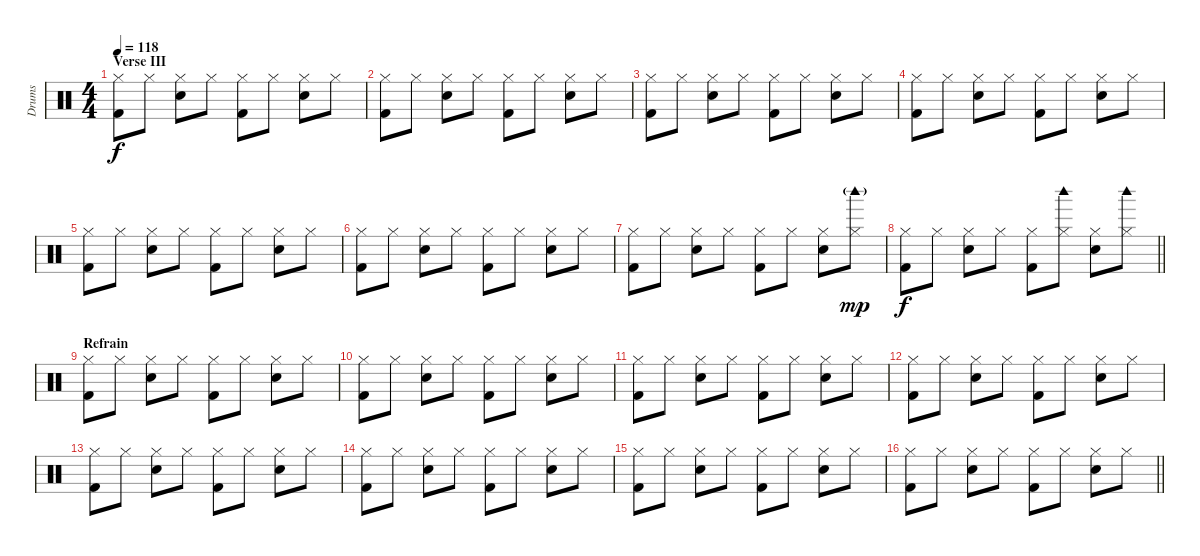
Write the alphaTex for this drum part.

\track ("Drums" "Drums") {instrument percussion}
\staff {score}
\articulation defaults
\ts (4 4)
\section ("" "Verse III")
\tempo 118
\clef neutral
\ks c
("Hi-Hat (closed)" "Kick (hit) 2").8{dy f} "Hi-Hat (closed)".8 ("Hi-Hat (closed)" "Snare (hit) 2").8 "Hi-Hat (closed)".8 ("Hi-Hat (closed)" "Kick (hit) 2").8 "Hi-Hat (closed)".8 ("Hi-Hat (closed)" "Snare (hit) 2").8 "Hi-Hat (closed)".8 |
("Hi-Hat (closed)" "Kick (hit) 2").8 "Hi-Hat (closed)".8 ("Hi-Hat (closed)" "Snare (hit) 2").8 "Hi-Hat (closed)".8 ("Hi-Hat (closed)" "Kick (hit) 2").8 "Hi-Hat (closed)".8 ("Hi-Hat (closed)" "Snare (hit) 2").8 "Hi-Hat (closed)".8 |
("Hi-Hat (closed)" "Kick (hit) 2").8 "Hi-Hat (closed)".8 ("Hi-Hat (closed)" "Snare (hit) 2").8 "Hi-Hat (closed)".8 ("Hi-Hat (closed)" "Kick (hit) 2").8 "Hi-Hat (closed)".8 ("Hi-Hat (closed)" "Snare (hit) 2").8 "Hi-Hat (closed)".8 |
("Hi-Hat (closed)" "Kick (hit) 2").8 "Hi-Hat (closed)".8 ("Hi-Hat (closed)" "Snare (hit) 2").8 "Hi-Hat (closed)".8 ("Hi-Hat (closed)" "Kick (hit) 2").8 "Hi-Hat (closed)".8 ("Hi-Hat (closed)" "Snare (hit) 2").8 "Hi-Hat (closed)".8 |
("Hi-Hat (closed)" "Kick (hit) 2").8 "Hi-Hat (closed)".8 ("Hi-Hat (closed)" "Snare (hit) 2").8 "Hi-Hat (closed)".8 ("Hi-Hat (closed)" "Kick (hit) 2").8 "Hi-Hat (closed)".8 ("Hi-Hat (closed)" "Snare (hit) 2").8 "Hi-Hat (closed)".8 |
("Hi-Hat (closed)" "Kick (hit) 2").8 "Hi-Hat (closed)".8 ("Hi-Hat (closed)" "Snare (hit) 2").8 "Hi-Hat (closed)".8 ("Hi-Hat (closed)" "Kick (hit) 2").8 "Hi-Hat (closed)".8 ("Hi-Hat (closed)" "Snare (hit) 2").8 "Hi-Hat (closed)".8 |
("Hi-Hat (closed)" "Kick (hit) 2").8 "Hi-Hat (closed)".8 ("Hi-Hat (closed)" "Snare (hit) 2").8 "Hi-Hat (closed)".8 ("Hi-Hat (closed)" "Kick (hit) 2").8 "Hi-Hat (closed)".8 ("Hi-Hat (closed)" "Snare (hit) 2").8 ("Hi-Hat (closed)" "Woodblock high (hit)"{g}).8{dy mp} |
\barLineRight lightlight
("Hi-Hat (closed)" "Kick (hit) 2").8{dy f} "Hi-Hat (closed)".8 ("Hi-Hat (closed)" "Snare (hit) 2").8 "Hi-Hat (closed)".8 ("Hi-Hat (closed)" "Kick (hit) 2").8 ("Hi-Hat (closed)" "Woodblock high (hit)").8 ("Hi-Hat (closed)" "Snare (hit) 2").8 ("Hi-Hat (closed)" "Woodblock high (hit)").8 |
\section ("" "Refrain")
("Hi-Hat (closed)" "Kick (hit) 2").8 "Hi-Hat (closed)".8 ("Hi-Hat (closed)" "Snare (hit) 2").8 "Hi-Hat (closed)".8 ("Hi-Hat (closed)" "Kick (hit) 2").8 "Hi-Hat (closed)".8 ("Hi-Hat (closed)" "Snare (hit) 2").8 "Hi-Hat (closed)".8 |
("Hi-Hat (closed)" "Kick (hit) 2").8 "Hi-Hat (closed)".8 ("Hi-Hat (closed)" "Snare (hit) 2").8 "Hi-Hat (closed)".8 ("Hi-Hat (closed)" "Kick (hit) 2").8 "Hi-Hat (closed)".8 ("Hi-Hat (closed)" "Snare (hit) 2").8 "Hi-Hat (closed)".8 |
("Hi-Hat (closed)" "Kick (hit) 2").8 "Hi-Hat (closed)".8 ("Hi-Hat (closed)" "Snare (hit) 2").8 "Hi-Hat (closed)".8 ("Hi-Hat (closed)" "Kick (hit) 2").8 "Hi-Hat (closed)".8 ("Hi-Hat (closed)" "Snare (hit) 2").8 "Hi-Hat (closed)".8 |
("Hi-Hat (closed)" "Kick (hit) 2").8 "Hi-Hat (closed)".8 ("Hi-Hat (closed)" "Snare (hit) 2").8 "Hi-Hat (closed)".8 ("Hi-Hat (closed)" "Kick (hit) 2").8 "Hi-Hat (closed)".8 ("Hi-Hat (closed)" "Snare (hit) 2").8 "Hi-Hat (closed)".8 |
("Hi-Hat (closed)" "Kick (hit) 2").8 "Hi-Hat (closed)".8 ("Hi-Hat (closed)" "Snare (hit) 2").8 "Hi-Hat (closed)".8 ("Hi-Hat (closed)" "Kick (hit) 2").8 "Hi-Hat (closed)".8 ("Hi-Hat (closed)" "Snare (hit) 2").8 "Hi-Hat (closed)".8 |
("Hi-Hat (closed)" "Kick (hit) 2").8 "Hi-Hat (closed)".8 ("Hi-Hat (closed)" "Snare (hit) 2").8 "Hi-Hat (closed)".8 ("Hi-Hat (closed)" "Kick (hit) 2").8 "Hi-Hat (closed)".8 ("Hi-Hat (closed)" "Snare (hit) 2").8 "Hi-Hat (closed)".8 |
("Hi-Hat (closed)" "Kick (hit) 2").8 "Hi-Hat (closed)".8 ("Hi-Hat (closed)" "Snare (hit) 2").8 "Hi-Hat (closed)".8 ("Hi-Hat (closed)" "Kick (hit) 2").8 "Hi-Hat (closed)".8 ("Hi-Hat (closed)" "Snare (hit) 2").8 "Hi-Hat (closed)".8 |
\barLineRight lightlight
("Hi-Hat (closed)" "Kick (hit) 2").8 "Hi-Hat (closed)".8 ("Hi-Hat (closed)" "Snare (hit) 2").8 "Hi-Hat (closed)".8 ("Hi-Hat (closed)" "Kick (hit) 2").8 "Hi-Hat (closed)".8 ("Hi-Hat (closed)" "Snare (hit) 2").8 "Hi-Hat (closed)".8
